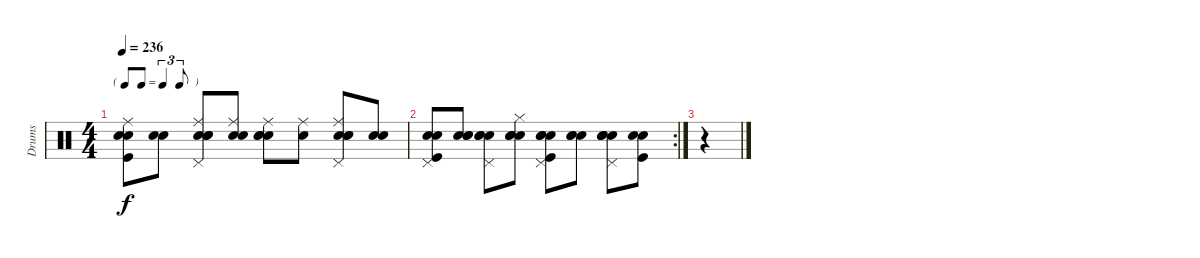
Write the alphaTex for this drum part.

\track ("Drums" "Drums") {instrument percussion}
\staff {score}
\articulation defaults
\ts (4 4)
\tf triplet8th
\tempo 236
\clef neutral
\ks c
("Snare (hit)" "Kick (hit)" "Electric Snare (hit)" "Ride (middle)").8{dy f} ("Snare (hit)" "Electric Snare (hit)").8 ("Snare (hit)" "Snare (hit) 2" "Electric Snare (hit)" "Ride (middle)" "Pedal Hi-Hat (hit)").8 ("Snare (hit)" "Snare (hit) 2" "Ride (middle)").8 ("Snare (hit)" "Snare (hit) 2" "Electric Snare (hit)" "Ride (middle)").8 ("Snare (hit)" "Ride (middle)").8 ("Snare (hit)" "Snare (hit) 2" "Electric Snare (hit)" "Ride (middle)" "Pedal Hi-Hat (hit)").8 ("Snare (hit)" "Snare (hit) 2").8 |
\rc 2
("Snare (hit)" "Kick (hit)" "Electric Snare (hit)" "Pedal Hi-Hat (hit)").8 ("Snare (hit)" "Electric Snare (hit)" "Hand Clap (hit)").8 ("Snare (hit)" "Snare (hit) 2" "Electric Snare (hit)" "Pedal Hi-Hat (hit)").8 ("Snare (hit)" "Snare (hit) 2" "Hi-Hat (closed)" "Hand Clap (hit)").8 ("Snare (hit)" "Kick (hit)" "Electric Snare (hit)" "Pedal Hi-Hat (hit)" "Hand Clap (hit)").8 ("Snare (hit)" "Electric Snare (hit)" "Hand Clap (hit)").8 ("Snare (hit)" "Snare (hit) 2" "Electric Snare (hit)" "Pedal Hi-Hat (hit)" "Hand Clap (hit)").8 ("Snare (hit)" "Kick (hit)" "Hand Clap (hit)").8 |
r.4
